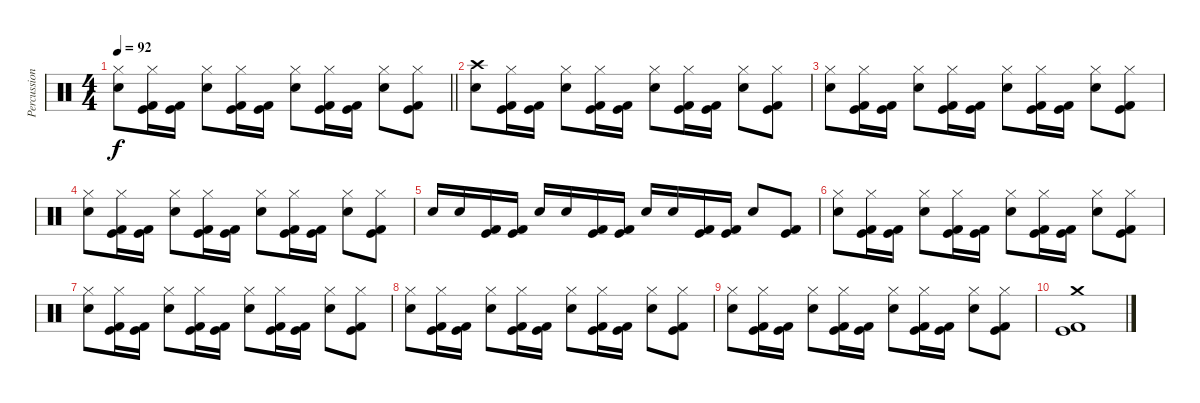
\track ("Percussion" "Percussion") {instrument percussion}
\staff {score}
\articulation defaults
\ts (4 4)
\tempo 92
\clef neutral
\barLineRight lightlight
\ks c
("Hi-Hat (closed)" "Electric Snare (hit)").8{dy f} ("Hi-Hat (closed)" "Kick (hit)" "Kick (hit) 2").16 ("Kick (hit)" "Kick (hit) 2").16 ("Hi-Hat (closed)" "Electric Snare (hit)").8 ("Hi-Hat (closed)" "Kick (hit)" "Kick (hit) 2").16 ("Kick (hit)" "Kick (hit) 2").16 ("Hi-Hat (closed)" "Electric Snare (hit)").8 ("Hi-Hat (closed)" "Kick (hit)" "Kick (hit) 2").16 ("Kick (hit)" "Kick (hit) 2").16 ("Hi-Hat (closed)" "Electric Snare (hit)").8 ("Hi-Hat (closed)" "Kick (hit)" "Kick (hit) 2").8 |
\section ("" "")
("Crash high (hit)" "Electric Snare (hit)").8 ("Hi-Hat (closed)" "Kick (hit)" "Kick (hit) 2").16 ("Kick (hit)" "Kick (hit) 2").16 ("Hi-Hat (closed)" "Electric Snare (hit)").8 ("Hi-Hat (closed)" "Kick (hit)" "Kick (hit) 2").16 ("Kick (hit)" "Kick (hit) 2").16 ("Hi-Hat (closed)" "Electric Snare (hit)").8 ("Hi-Hat (closed)" "Kick (hit)" "Kick (hit) 2").16 ("Kick (hit)" "Kick (hit) 2").16 ("Hi-Hat (closed)" "Electric Snare (hit)").8 ("Hi-Hat (closed)" "Kick (hit)" "Kick (hit) 2").8 |
("Hi-Hat (closed)" "Electric Snare (hit)").8 ("Hi-Hat (closed)" "Kick (hit)" "Kick (hit) 2").16 ("Kick (hit)" "Kick (hit) 2").16 ("Hi-Hat (closed)" "Electric Snare (hit)").8 ("Hi-Hat (closed)" "Kick (hit)" "Kick (hit) 2").16 ("Kick (hit)" "Kick (hit) 2").16 ("Hi-Hat (closed)" "Electric Snare (hit)").8 ("Hi-Hat (closed)" "Kick (hit)" "Kick (hit) 2").16 ("Kick (hit)" "Kick (hit) 2").16 ("Hi-Hat (closed)" "Electric Snare (hit)").8 ("Hi-Hat (closed)" "Kick (hit)" "Kick (hit) 2").8 |
("Hi-Hat (closed)" "Electric Snare (hit)").8 ("Hi-Hat (closed)" "Kick (hit)" "Kick (hit) 2").16 ("Kick (hit)" "Kick (hit) 2").16 ("Hi-Hat (closed)" "Electric Snare (hit)").8 ("Hi-Hat (closed)" "Kick (hit)" "Kick (hit) 2").16 ("Kick (hit)" "Kick (hit) 2").16 ("Hi-Hat (closed)" "Electric Snare (hit)").8 ("Hi-Hat (closed)" "Kick (hit)" "Kick (hit) 2").16 ("Kick (hit)" "Kick (hit) 2").16 ("Hi-Hat (closed)" "Electric Snare (hit)").8 ("Hi-Hat (closed)" "Kick (hit)" "Kick (hit) 2").8 |
"Electric Snare (hit)".16 "Electric Snare (hit)".16 ("Kick (hit)" "Kick (hit) 2").16 ("Kick (hit)" "Kick (hit) 2").16 "Electric Snare (hit)".16 "Electric Snare (hit)".16 ("Kick (hit)" "Kick (hit) 2").16 ("Kick (hit)" "Kick (hit) 2").16 "Electric Snare (hit)".16 "Electric Snare (hit)".16 ("Kick (hit)" "Kick (hit) 2").16 ("Kick (hit)" "Kick (hit) 2").16 "Electric Snare (hit)".8 ("Kick (hit)" "Kick (hit) 2").8 |
("Hi-Hat (closed)" "Electric Snare (hit)").8 ("Hi-Hat (closed)" "Kick (hit)" "Kick (hit) 2").16 ("Kick (hit)" "Kick (hit) 2").16 ("Hi-Hat (closed)" "Electric Snare (hit)").8 ("Hi-Hat (closed)" "Kick (hit)" "Kick (hit) 2").16 ("Kick (hit)" "Kick (hit) 2").16 ("Hi-Hat (closed)" "Electric Snare (hit)").8 ("Hi-Hat (closed)" "Kick (hit)" "Kick (hit) 2").16 ("Kick (hit)" "Kick (hit) 2").16 ("Hi-Hat (closed)" "Electric Snare (hit)").8 ("Hi-Hat (closed)" "Kick (hit)" "Kick (hit) 2").8 |
("Hi-Hat (closed)" "Electric Snare (hit)").8 ("Hi-Hat (closed)" "Kick (hit)" "Kick (hit) 2").16 ("Kick (hit)" "Kick (hit) 2").16 ("Hi-Hat (closed)" "Electric Snare (hit)").8 ("Hi-Hat (closed)" "Kick (hit)" "Kick (hit) 2").16 ("Kick (hit)" "Kick (hit) 2").16 ("Hi-Hat (closed)" "Electric Snare (hit)").8 ("Hi-Hat (closed)" "Kick (hit)" "Kick (hit) 2").16 ("Kick (hit)" "Kick (hit) 2").16 ("Hi-Hat (closed)" "Electric Snare (hit)").8 ("Hi-Hat (closed)" "Kick (hit)" "Kick (hit) 2").8 |
("Hi-Hat (closed)" "Electric Snare (hit)").8 ("Hi-Hat (closed)" "Kick (hit)" "Kick (hit) 2").16 ("Kick (hit)" "Kick (hit) 2").16 ("Hi-Hat (closed)" "Electric Snare (hit)").8 ("Hi-Hat (closed)" "Kick (hit)" "Kick (hit) 2").16 ("Kick (hit)" "Kick (hit) 2").16 ("Hi-Hat (closed)" "Electric Snare (hit)").8 ("Hi-Hat (closed)" "Kick (hit)" "Kick (hit) 2").16 ("Kick (hit)" "Kick (hit) 2").16 ("Hi-Hat (closed)" "Electric Snare (hit)").8 ("Hi-Hat (closed)" "Kick (hit)" "Kick (hit) 2").8 |
("Hi-Hat (closed)" "Electric Snare (hit)").8 ("Hi-Hat (closed)" "Kick (hit)" "Kick (hit) 2").16 ("Kick (hit)" "Kick (hit) 2").16 ("Hi-Hat (closed)" "Electric Snare (hit)").8 ("Hi-Hat (closed)" "Kick (hit)" "Kick (hit) 2").16 ("Kick (hit)" "Kick (hit) 2").16 ("Hi-Hat (closed)" "Electric Snare (hit)").8 ("Hi-Hat (closed)" "Kick (hit)" "Kick (hit) 2").16 ("Kick (hit)" "Kick (hit) 2").16 ("Hi-Hat (closed)" "Electric Snare (hit)").8 ("Hi-Hat (closed)" "Kick (hit)" "Kick (hit) 2").8 |
("Crash medium (hit)" "Kick (hit)" "Kick (hit) 2").1
